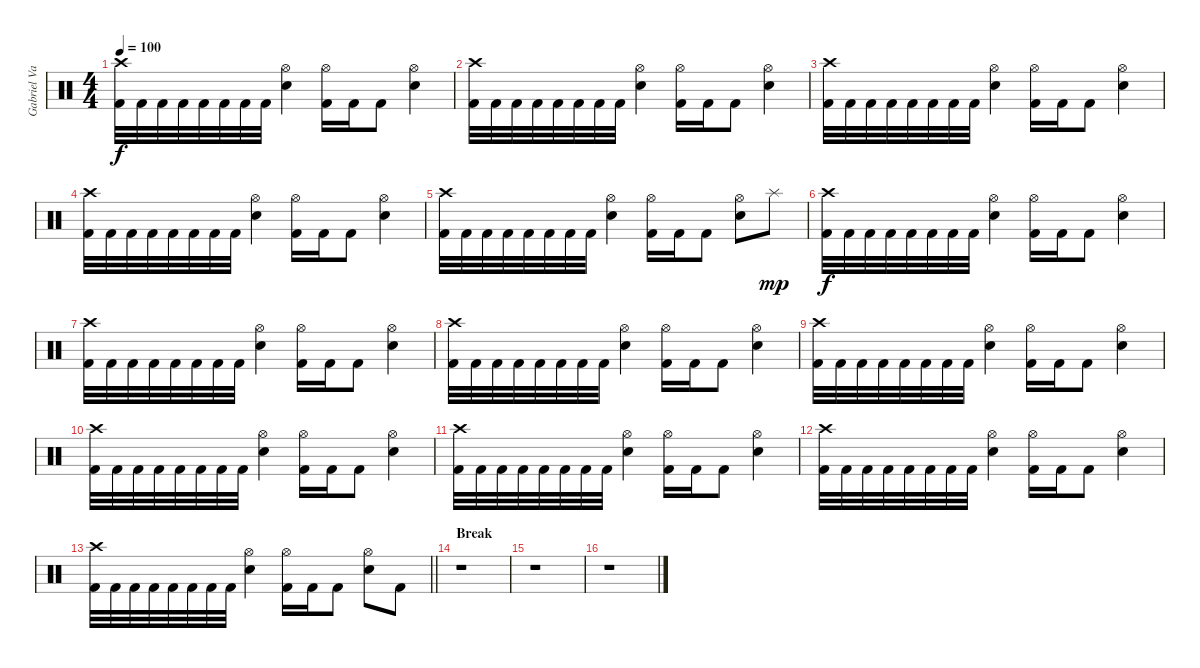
\track ("Gabriel Valerio" "Gabriel Va") {instrument percussion}
\staff {score}
\articulation defaults
\ts (4 4)
\tempo 100
\clef neutral
\ks c
("Crash high (hit)" "Kick (hit) 2").32{dy f} "Kick (hit) 2".32 "Kick (hit) 2".32 "Kick (hit) 2".32 "Kick (hit) 2".32 "Kick (hit) 2".32 "Kick (hit) 2".32 "Kick (hit) 2".32 ("Hi-Hat (open)" "Snare (hit) 2").4 ("Hi-Hat (open)" "Kick (hit) 2").16 "Kick (hit) 2".16 "Kick (hit) 2".8 ("Hi-Hat (open)" "Snare (hit) 2").4 |
("Crash high (hit)" "Kick (hit) 2").32 "Kick (hit) 2".32 "Kick (hit) 2".32 "Kick (hit) 2".32 "Kick (hit) 2".32 "Kick (hit) 2".32 "Kick (hit) 2".32 "Kick (hit) 2".32 ("Hi-Hat (open)" "Snare (hit) 2").4 ("Hi-Hat (open)" "Kick (hit) 2").16 "Kick (hit) 2".16 "Kick (hit) 2".8 ("Hi-Hat (open)" "Snare (hit) 2").4 |
("Crash high (hit)" "Kick (hit) 2").32 "Kick (hit) 2".32 "Kick (hit) 2".32 "Kick (hit) 2".32 "Kick (hit) 2".32 "Kick (hit) 2".32 "Kick (hit) 2".32 "Kick (hit) 2".32 ("Hi-Hat (open)" "Snare (hit) 2").4 ("Hi-Hat (open)" "Kick (hit) 2").16 "Kick (hit) 2".16 "Kick (hit) 2".8 ("Hi-Hat (open)" "Snare (hit) 2").4 |
("Crash high (hit)" "Kick (hit) 2").32 "Kick (hit) 2".32 "Kick (hit) 2".32 "Kick (hit) 2".32 "Kick (hit) 2".32 "Kick (hit) 2".32 "Kick (hit) 2".32 "Kick (hit) 2".32 ("Hi-Hat (open)" "Snare (hit) 2").4 ("Hi-Hat (open)" "Kick (hit) 2").16 "Kick (hit) 2".16 "Kick (hit) 2".8 ("Hi-Hat (open)" "Snare (hit) 2").4 |
("Crash high (hit)" "Kick (hit) 2").32 "Kick (hit) 2".32 "Kick (hit) 2".32 "Kick (hit) 2".32 "Kick (hit) 2".32 "Kick (hit) 2".32 "Kick (hit) 2".32 "Kick (hit) 2".32 ("Hi-Hat (open)" "Snare (hit) 2").4 ("Hi-Hat (open)" "Kick (hit) 2").16 "Kick (hit) 2".16 "Kick (hit) 2".8 ("Hi-Hat (open)" "Snare (hit) 2").8 "Splash (hit)".8{dy mp} |
("Crash high (hit)" "Kick (hit) 2").32{dy f} "Kick (hit) 2".32 "Kick (hit) 2".32 "Kick (hit) 2".32 "Kick (hit) 2".32 "Kick (hit) 2".32 "Kick (hit) 2".32 "Kick (hit) 2".32 ("Hi-Hat (open)" "Snare (hit) 2").4 ("Hi-Hat (open)" "Kick (hit) 2").16 "Kick (hit) 2".16 "Kick (hit) 2".8 ("Hi-Hat (open)" "Snare (hit) 2").4 |
("Crash high (hit)" "Kick (hit) 2").32 "Kick (hit) 2".32 "Kick (hit) 2".32 "Kick (hit) 2".32 "Kick (hit) 2".32 "Kick (hit) 2".32 "Kick (hit) 2".32 "Kick (hit) 2".32 ("Hi-Hat (open)" "Snare (hit) 2").4 ("Hi-Hat (open)" "Kick (hit) 2").16 "Kick (hit) 2".16 "Kick (hit) 2".8 ("Hi-Hat (open)" "Snare (hit) 2").4 |
("Crash high (hit)" "Kick (hit) 2").32 "Kick (hit) 2".32 "Kick (hit) 2".32 "Kick (hit) 2".32 "Kick (hit) 2".32 "Kick (hit) 2".32 "Kick (hit) 2".32 "Kick (hit) 2".32 ("Hi-Hat (open)" "Snare (hit) 2").4 ("Hi-Hat (open)" "Kick (hit) 2").16 "Kick (hit) 2".16 "Kick (hit) 2".8 ("Hi-Hat (open)" "Snare (hit) 2").4 |
("Crash high (hit)" "Kick (hit) 2").32 "Kick (hit) 2".32 "Kick (hit) 2".32 "Kick (hit) 2".32 "Kick (hit) 2".32 "Kick (hit) 2".32 "Kick (hit) 2".32 "Kick (hit) 2".32 ("Hi-Hat (open)" "Snare (hit) 2").4 ("Hi-Hat (open)" "Kick (hit) 2").16 "Kick (hit) 2".16 "Kick (hit) 2".8 ("Hi-Hat (open)" "Snare (hit) 2").4 |
("Crash high (hit)" "Kick (hit) 2").32 "Kick (hit) 2".32 "Kick (hit) 2".32 "Kick (hit) 2".32 "Kick (hit) 2".32 "Kick (hit) 2".32 "Kick (hit) 2".32 "Kick (hit) 2".32 ("Hi-Hat (open)" "Snare (hit) 2").4 ("Hi-Hat (open)" "Kick (hit) 2").16 "Kick (hit) 2".16 "Kick (hit) 2".8 ("Hi-Hat (open)" "Snare (hit) 2").4 |
("Crash high (hit)" "Kick (hit) 2").32 "Kick (hit) 2".32 "Kick (hit) 2".32 "Kick (hit) 2".32 "Kick (hit) 2".32 "Kick (hit) 2".32 "Kick (hit) 2".32 "Kick (hit) 2".32 ("Hi-Hat (open)" "Snare (hit) 2").4 ("Hi-Hat (open)" "Kick (hit) 2").16 "Kick (hit) 2".16 "Kick (hit) 2".8 ("Hi-Hat (open)" "Snare (hit) 2").4 |
("Crash high (hit)" "Kick (hit) 2").32 "Kick (hit) 2".32 "Kick (hit) 2".32 "Kick (hit) 2".32 "Kick (hit) 2".32 "Kick (hit) 2".32 "Kick (hit) 2".32 "Kick (hit) 2".32 ("Hi-Hat (open)" "Snare (hit) 2").4 ("Hi-Hat (open)" "Kick (hit) 2").16 "Kick (hit) 2".16 "Kick (hit) 2".8 ("Hi-Hat (open)" "Snare (hit) 2").4 |
\barLineRight lightlight
("Crash high (hit)" "Kick (hit) 2").32 "Kick (hit) 2".32 "Kick (hit) 2".32 "Kick (hit) 2".32 "Kick (hit) 2".32 "Kick (hit) 2".32 "Kick (hit) 2".32 "Kick (hit) 2".32 ("Hi-Hat (open)" "Snare (hit) 2").4 ("Hi-Hat (open)" "Kick (hit) 2").16 "Kick (hit) 2".16 "Kick (hit) 2".8 ("Hi-Hat (open)" "Snare (hit) 2").8 "Kick (hit) 2".8 |
\section ("" "Break")
r.1 |
r.1 |
r.1
